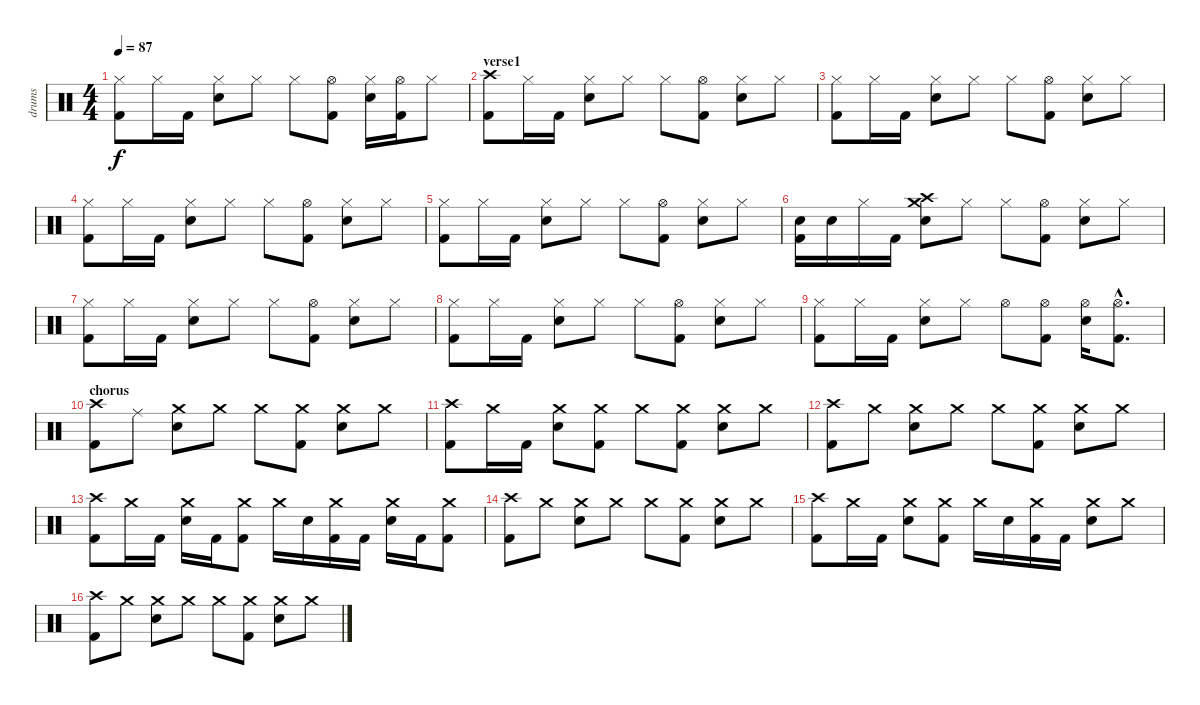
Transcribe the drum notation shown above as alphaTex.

\track ("drums" "drums") {instrument percussion}
\staff {score}
\articulation defaults
\ts (4 4)
\tempo 87
\clef neutral
\ks c
("Hi-Hat (closed)" "Kick (hit) 2").8{dy f} "Hi-Hat (closed)".16 "Kick (hit) 2".16 ("Hi-Hat (closed)" "Electric Snare (hit)").8 "Hi-Hat (closed)".8 "Hi-Hat (closed)".8 ("Hi-Hat (open)" "Kick (hit) 2").8 ("Hi-Hat (closed)" "Electric Snare (hit)").16 ("Hi-Hat (open)" "Kick (hit) 2").16 "Hi-Hat (closed)".8 |
\section ("" "verse1")
("Crash high (hit)" "Kick (hit) 2").8 "Hi-Hat (closed)".16 "Kick (hit) 2".16 ("Hi-Hat (closed)" "Electric Snare (hit)").8 "Hi-Hat (closed)".8 "Hi-Hat (closed)".8 ("Hi-Hat (open)" "Kick (hit) 2").8 ("Hi-Hat (closed)" "Electric Snare (hit)").8 "Hi-Hat (closed)".8 |
("Hi-Hat (closed)" "Kick (hit) 2").8 "Hi-Hat (closed)".16 "Kick (hit) 2".16 ("Hi-Hat (closed)" "Electric Snare (hit)").8 "Hi-Hat (closed)".8 "Hi-Hat (closed)".8 ("Hi-Hat (open)" "Kick (hit) 2").8 ("Hi-Hat (closed)" "Electric Snare (hit)").8 "Hi-Hat (closed)".8 |
("Hi-Hat (closed)" "Kick (hit) 2").8 "Hi-Hat (closed)".16 "Kick (hit) 2".16 ("Hi-Hat (closed)" "Electric Snare (hit)").8 "Hi-Hat (closed)".8 "Hi-Hat (closed)".8 ("Hi-Hat (open)" "Kick (hit) 2").8 ("Hi-Hat (closed)" "Electric Snare (hit)").8 "Hi-Hat (closed)".8 |
("Hi-Hat (closed)" "Kick (hit) 2").8 "Hi-Hat (closed)".16 "Kick (hit) 2".16 ("Hi-Hat (closed)" "Electric Snare (hit)").8 "Hi-Hat (closed)".8 "Hi-Hat (closed)".8 ("Hi-Hat (open)" "Kick (hit) 2").8 ("Hi-Hat (closed)" "Electric Snare (hit)").8 "Hi-Hat (closed)".8 |
("Electric Snare (hit)" "Kick (hit) 2").16 "Electric Snare (hit)".16 "Hi-Hat (closed)".16 "Kick (hit) 2".16 ("Crash high (hit)" "Crash medium (hit)" "Electric Snare (hit)").8 "Hi-Hat (closed)".8 "Hi-Hat (closed)".8 ("Hi-Hat (open)" "Kick (hit) 2").8 ("Hi-Hat (closed)" "Electric Snare (hit)").8 "Hi-Hat (closed)".8 |
("Hi-Hat (closed)" "Kick (hit) 2").8 "Hi-Hat (closed)".16 "Kick (hit) 2".16 ("Hi-Hat (closed)" "Electric Snare (hit)").8 "Hi-Hat (closed)".8 "Hi-Hat (closed)".8 ("Hi-Hat (open)" "Kick (hit) 2").8 ("Hi-Hat (closed)" "Electric Snare (hit)").8 "Hi-Hat (closed)".8 |
("Hi-Hat (closed)" "Kick (hit) 2").8 "Hi-Hat (closed)".16 "Kick (hit) 2".16 ("Hi-Hat (closed)" "Electric Snare (hit)").8 "Hi-Hat (closed)".8 "Hi-Hat (closed)".8 ("Hi-Hat (open)" "Kick (hit) 2").8 ("Hi-Hat (closed)" "Electric Snare (hit)").8 "Hi-Hat (closed)".8 |
("Hi-Hat (closed)" "Kick (hit) 2").8 "Hi-Hat (closed)".16 "Kick (hit) 2".16 ("Hi-Hat (closed)" "Electric Snare (hit)").8 "Hi-Hat (closed)".8 "Hi-Hat (open)".8 ("Hi-Hat (open)" "Kick (hit) 2").8 ("Hi-Hat (open)" "Electric Snare (hit)").16 ("Hi-Hat (open)"{hac} "Kick (hit) 2"{hac}).8{d} |
\section ("" "chorus")
("Crash high (hit)" "Kick (hit) 2").8 "Ride (middle)".8 ("Crash medium (hit)" "Electric Snare (hit)").8 "Crash medium (hit)".8 "Crash medium (hit)".8 ("Crash medium (hit)" "Kick (hit) 2").8 ("Crash medium (hit)" "Electric Snare (hit)").8 "Crash medium (hit)".8 |
("Crash high (hit)" "Kick (hit) 2").8 "Crash medium (hit)".16 "Kick (hit) 2".16 ("Crash medium (hit)" "Electric Snare (hit)").8 ("Crash medium (hit)" "Kick (hit) 2").8 "Crash medium (hit)".8 ("Crash medium (hit)" "Kick (hit) 2").8 ("Crash medium (hit)" "Electric Snare (hit)").8 "Crash medium (hit)".8 |
("Crash high (hit)" "Kick (hit) 2").8 "Crash medium (hit)".8 ("Crash medium (hit)" "Electric Snare (hit)").8 "Crash medium (hit)".8 "Crash medium (hit)".8 ("Crash medium (hit)" "Kick (hit) 2").8 ("Crash medium (hit)" "Electric Snare (hit)").8 "Crash medium (hit)".8 |
("Crash high (hit)" "Kick (hit) 2").8 "Crash medium (hit)".16 "Kick (hit) 2".16 ("Crash medium (hit)" "Electric Snare (hit)").16 "Kick (hit) 2".16 ("Crash medium (hit)" "Kick (hit) 2").8 "Crash medium (hit)".16 "Electric Snare (hit)".16 ("Crash medium (hit)" "Kick (hit) 2").16 "Kick (hit) 2".16 ("Crash medium (hit)" "Electric Snare (hit)").16 "Kick (hit) 2".16 ("Crash medium (hit)" "Kick (hit) 2").8 |
("Crash high (hit)" "Kick (hit) 2").8 "Crash medium (hit)".8 ("Crash medium (hit)" "Electric Snare (hit)").8 "Crash medium (hit)".8 "Crash medium (hit)".8 ("Crash medium (hit)" "Kick (hit) 2").8 ("Crash medium (hit)" "Electric Snare (hit)").8 "Crash medium (hit)".8 |
("Crash high (hit)" "Kick (hit) 2").8 "Crash medium (hit)".16 "Kick (hit) 2".16 ("Crash medium (hit)" "Electric Snare (hit)").8 ("Crash medium (hit)" "Kick (hit) 2").8 "Crash medium (hit)".16 "Electric Snare (hit)".16 ("Crash medium (hit)" "Kick (hit) 2").16 "Kick (hit) 2".16 ("Crash medium (hit)" "Electric Snare (hit)").8 "Crash medium (hit)".8 |
("Crash high (hit)" "Kick (hit) 2").8 "Crash medium (hit)".8 ("Crash medium (hit)" "Electric Snare (hit)").8 "Crash medium (hit)".8 "Crash medium (hit)".8 ("Crash medium (hit)" "Kick (hit) 2").8 ("Crash medium (hit)" "Electric Snare (hit)").8 "Crash medium (hit)".8
